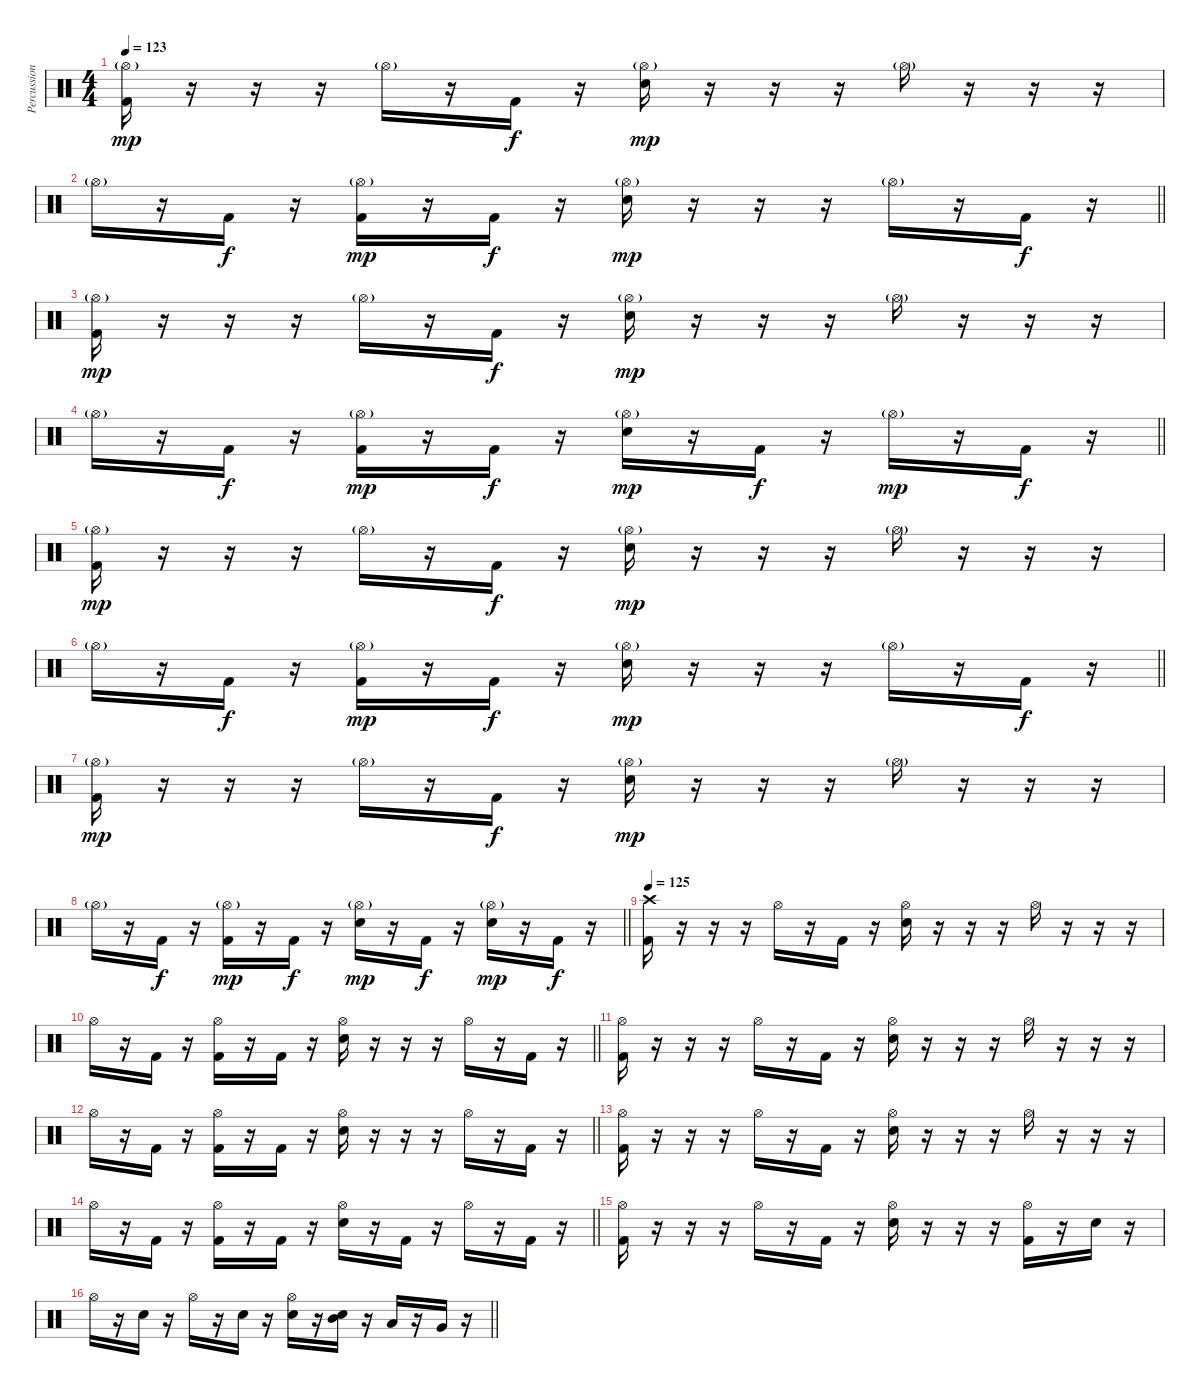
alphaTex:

\track ("Percussion" "Percussion") {instrument percussion}
\staff {score}
\articulation defaults
\ts (4 4)
\tempo 123
\clef neutral
\ks c
("Kick (hit) 2" "Hi-Hat (open)"{g}).16{dy mp} r.16 r.16 r.16 "Hi-Hat (open)"{g}.16 r.16 "Kick (hit) 2".16{dy f} r.16 ("Electric Snare (hit)" "Hi-Hat (open)"{g}).16{dy mp} r.16 r.16 r.16 "Hi-Hat (open)"{g}.16 r.16 r.16 r.16 |
\barLineRight lightlight "Hi-Hat (open)"{g}.16
r.16 "Kick (hit) 2".16{dy f} r.16 ("Kick (hit) 2" "Hi-Hat (open)"{g}).16{dy mp} r.16 "Kick (hit) 2".16{dy f} r.16 ("Electric Snare (hit)" "Hi-Hat (open)"{g}).16{dy mp} r.16 r.16 r.16 "Hi-Hat (open)"{g}.16 r.16 "Kick (hit) 2".16{dy f} r.16 |
("Kick (hit) 2" "Hi-Hat (open)"{g}).16{dy mp} r.16 r.16 r.16 "Hi-Hat (open)"{g}.16 r.16 "Kick (hit) 2".16{dy f} r.16 ("Electric Snare (hit)" "Hi-Hat (open)"{g}).16{dy mp} r.16 r.16 r.16 "Hi-Hat (open)"{g}.16 r.16 r.16 r.16 |
\barLineRight lightlight "Hi-Hat (open)"{g}.16
r.16 "Kick (hit) 2".16{dy f} r.16 ("Kick (hit) 2" "Hi-Hat (open)"{g}).16{dy mp} r.16 "Kick (hit) 2".16{dy f} r.16 ("Electric Snare (hit)" "Hi-Hat (open)"{g}).16{dy mp} r.16 "Kick (hit) 2".16{dy f} r.16 "Hi-Hat (open)"{g}.16{dy mp} r.16 "Kick (hit) 2".16{dy f} r.16 |
("Kick (hit) 2" "Hi-Hat (open)"{g}).16{dy mp} r.16 r.16 r.16 "Hi-Hat (open)"{g}.16 r.16 "Kick (hit) 2".16{dy f} r.16 ("Electric Snare (hit)" "Hi-Hat (open)"{g}).16{dy mp} r.16 r.16 r.16 "Hi-Hat (open)"{g}.16 r.16 r.16 r.16 |
\barLineRight lightlight "Hi-Hat (open)"{g}.16
r.16 "Kick (hit) 2".16{dy f} r.16 ("Kick (hit) 2" "Hi-Hat (open)"{g}).16{dy mp} r.16 "Kick (hit) 2".16{dy f} r.16 ("Electric Snare (hit)" "Hi-Hat (open)"{g}).16{dy mp} r.16 r.16 r.16 "Hi-Hat (open)"{g}.16 r.16 "Kick (hit) 2".16{dy f} r.16 |
("Kick (hit) 2" "Hi-Hat (open)"{g}).16{dy mp} r.16 r.16 r.16 "Hi-Hat (open)"{g}.16 r.16 "Kick (hit) 2".16{dy f} r.16 ("Electric Snare (hit)" "Hi-Hat (open)"{g}).16{dy mp} r.16 r.16 r.16 "Hi-Hat (open)"{g}.16 r.16 r.16 r.16 |
\barLineRight lightlight "Hi-Hat (open)"{g}.16
r.16 "Kick (hit) 2".16{dy f} r.16 ("Kick (hit) 2" "Hi-Hat (open)"{g}).16{dy mp} r.16 "Kick (hit) 2".16{dy f} r.16 ("Electric Snare (hit)" "Hi-Hat (open)"{g}).16{dy mp} r.16 "Kick (hit) 2".16{dy f} r.16 ("Electric Snare (hit)" "Hi-Hat (open)"{g}).16{dy mp} r.16 "Kick (hit) 2".16{dy f} r.16 |
\section ("" "")
\tempo 125
("Kick (hit) 2" "Crash high (hit)").16 r.16 r.16 r.16 "Hi-Hat (open)".16 r.16 "Kick (hit) 2".16 r.16 ("Electric Snare (hit)" "Hi-Hat (open)").16 r.16 r.16 r.16 "Hi-Hat (open)".16 r.16 r.16 r.16 |
\barLineRight lightlight "Hi-Hat (open)".16
r.16 "Kick (hit) 2".16 r.16 ("Kick (hit) 2" "Hi-Hat (open)").16 r.16 "Kick (hit) 2".16 r.16 ("Electric Snare (hit)" "Hi-Hat (open)").16 r.16 r.16 r.16 "Hi-Hat (open)".16 r.16 "Kick (hit) 2".16 r.16 |
("Kick (hit) 2" "Hi-Hat (open)").16 r.16 r.16 r.16 "Hi-Hat (open)".16 r.16 "Kick (hit) 2".16 r.16 ("Electric Snare (hit)" "Hi-Hat (open)").16 r.16 r.16 r.16 "Hi-Hat (open)".16 r.16 r.16 r.16 |
\barLineRight lightlight "Hi-Hat (open)".16
r.16 "Kick (hit) 2".16 r.16 ("Kick (hit) 2" "Hi-Hat (open)").16 r.16 "Kick (hit) 2".16 r.16 ("Electric Snare (hit)" "Hi-Hat (open)").16 r.16 r.16 r.16 "Hi-Hat (open)".16 r.16 "Kick (hit) 2".16 r.16 |
("Kick (hit) 2" "Hi-Hat (open)").16 r.16 r.16 r.16 "Hi-Hat (open)".16 r.16 "Kick (hit) 2".16 r.16 ("Electric Snare (hit)" "Hi-Hat (open)").16 r.16 r.16 r.16 "Hi-Hat (open)".16 r.16 r.16 r.16 |
\barLineRight lightlight "Hi-Hat (open)".16
r.16 "Kick (hit) 2".16 r.16 ("Kick (hit) 2" "Hi-Hat (open)").16 r.16 "Kick (hit) 2".16 r.16 ("Electric Snare (hit)" "Hi-Hat (open)").16 r.16 "Kick (hit) 2".16 r.16 "Hi-Hat (open)".16 r.16 "Kick (hit) 2".16 r.16 |
("Kick (hit) 2" "Hi-Hat (open)").16 r.16 r.16 r.16 "Hi-Hat (open)".16 r.16 "Kick (hit) 2".16 r.16 ("Electric Snare (hit)" "Hi-Hat (open)").16 r.16 r.16 r.16 ("Kick (hit) 2" "Hi-Hat (open)").16 r.16 "Electric Snare (hit)".16 r.16 |
\barLineRight lightlight "Hi-Hat (open)".16
r.16 "Electric Snare (hit)".16 r.16 "Hi-Hat (open)".16 r.16 "Electric Snare (hit)".16 r.16 ("Electric Snare (hit)" "Hi-Hat (open)").16 r.16 ("Electric Snare (hit)" "Mid Tom (hit)").16 r.16 "Low Tom (hit)".16 r.16 "Very Low Tom (hit)".16 r.16
